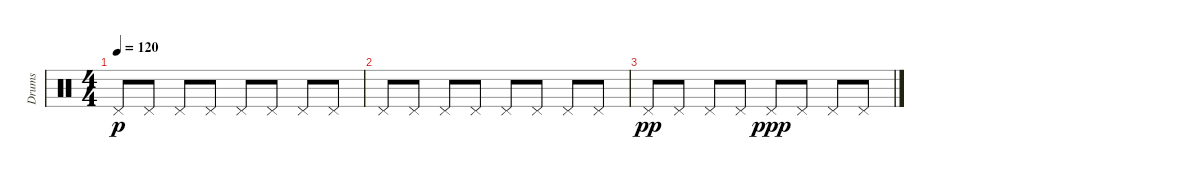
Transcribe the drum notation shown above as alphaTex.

\track ("Drums" "Drums") {instrument percussion}
\staff {score}
\articulation defaults
\ts (4 4)
\tempo 120
\clef neutral
\ks c "Pedal Hi-Hat (hit)".8{dy p} "Pedal Hi-Hat (hit)".8 "Pedal Hi-Hat (hit)".8 "Pedal Hi-Hat (hit)".8 "Pedal Hi-Hat (hit)".8 "Pedal Hi-Hat (hit)".8 "Pedal Hi-Hat (hit)".8 "Pedal Hi-Hat (hit)".8
|
"Pedal Hi-Hat (hit)".8 "Pedal Hi-Hat (hit)".8 "Pedal Hi-Hat (hit)".8 "Pedal Hi-Hat (hit)".8 "Pedal Hi-Hat (hit)".8 "Pedal Hi-Hat (hit)".8 "Pedal Hi-Hat (hit)".8 "Pedal Hi-Hat (hit)".8 |
"Pedal Hi-Hat (hit)".8{dy pp} "Pedal Hi-Hat (hit)".8 "Pedal Hi-Hat (hit)".8 "Pedal Hi-Hat (hit)".8 "Pedal Hi-Hat (hit)".8{dy ppp} "Pedal Hi-Hat (hit)".8 "Pedal Hi-Hat (hit)".8 "Pedal Hi-Hat (hit)".8
